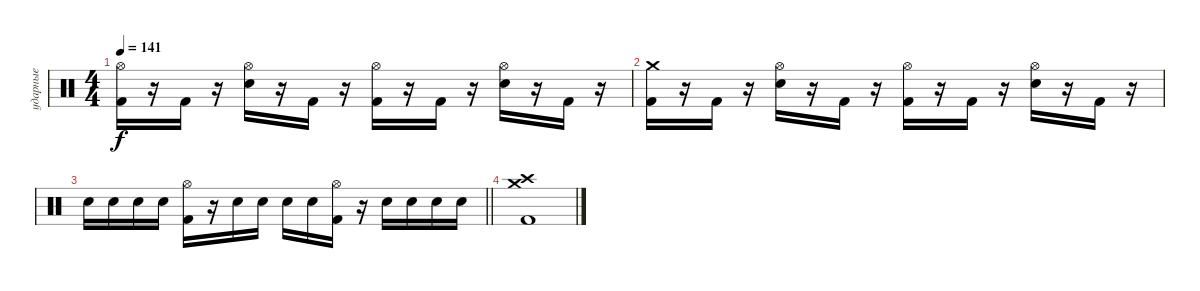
\track ("ударные" "ударные") {instrument percussion}
\staff {score}
\articulation defaults
\ts (4 4)
\tempo 141
\clef neutral
\ks c
("Kick (hit) 2" "Hi-Hat (open)").16{dy f} r.16 "Kick (hit) 2".16 r.16 ("Snare (hit) 2" "Hi-Hat (open)").16 r.16 "Kick (hit) 2".16 r.16 ("Kick (hit) 2" "Hi-Hat (open)").16 r.16 "Kick (hit) 2".16 r.16 ("Snare (hit) 2" "Hi-Hat (open)").16 r.16 "Kick (hit) 2".16 r.16 |
("Kick (hit) 2" "Crash medium (hit)").16 r.16 "Kick (hit) 2".16 r.16 ("Snare (hit) 2" "Hi-Hat (open)").16 r.16 "Kick (hit) 2".16 r.16 ("Kick (hit) 2" "Hi-Hat (open)").16 r.16 "Kick (hit) 2".16 r.16 ("Snare (hit) 2" "Hi-Hat (open)").16 r.16 "Kick (hit) 2".16 r.16 |
\barLineRight lightlight "Snare (hit) 2".16 "Snare (hit) 2".16 "Snare (hit) 2".16 "Snare (hit) 2".16
("Kick (hit) 2" "Hi-Hat (open)").16 r.16 "Snare (hit) 2".16 "Snare (hit) 2".16 "Snare (hit) 2".16 "Snare (hit) 2".16 ("Kick (hit) 2" "Hi-Hat (open)").16 r.16 "Snare (hit) 2".16 "Snare (hit) 2".16 "Snare (hit) 2".16 "Snare (hit) 2".16 |
("Kick (hit) 2" "Crash high (hit)" "Crash medium (hit)").1
